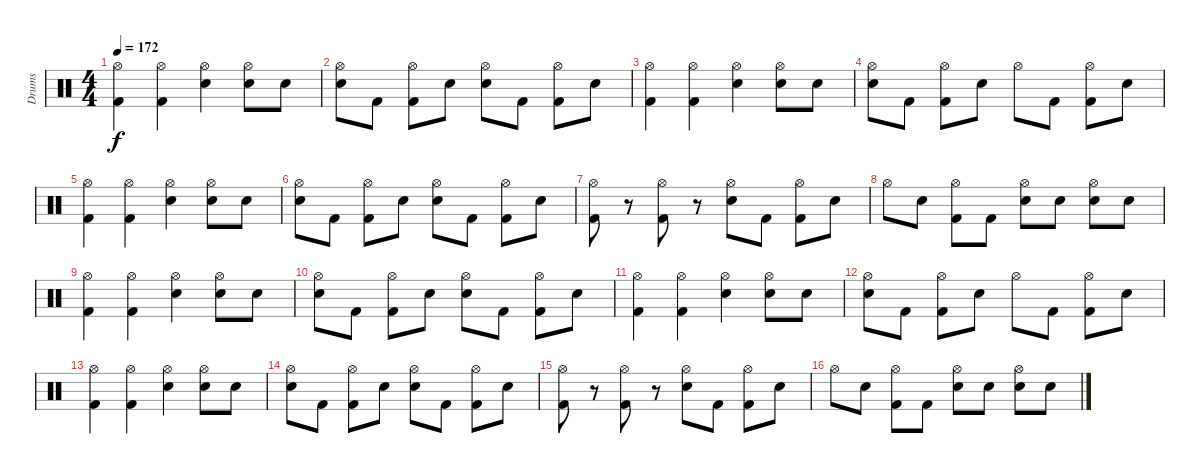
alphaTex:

\track ("Drums" "Drums") {instrument percussion}
\staff {score}
\articulation defaults
\ts (4 4)
\tempo 172
\clef neutral
\ks c
("Hi-Hat (open)" "Kick (hit) 2").4{dy f} ("Hi-Hat (open)" "Kick (hit) 2").4 ("Hi-Hat (open)" "Snare (hit) 2").4 ("Hi-Hat (open)" "Snare (hit) 2").8 "Snare (hit) 2".8 |
("Hi-Hat (open)" "Snare (hit) 2").8 "Kick (hit) 2".8 ("Hi-Hat (open)" "Kick (hit) 2").8 "Snare (hit) 2".8 ("Hi-Hat (open)" "Snare (hit) 2").8 "Kick (hit) 2".8 ("Hi-Hat (open)" "Kick (hit) 2").8 "Snare (hit) 2".8 |
("Hi-Hat (open)" "Kick (hit) 2").4 ("Hi-Hat (open)" "Kick (hit) 2").4 ("Hi-Hat (open)" "Snare (hit) 2").4 ("Hi-Hat (open)" "Snare (hit) 2").8 "Snare (hit) 2".8 |
("Hi-Hat (open)" "Snare (hit) 2").8 "Kick (hit) 2".8 ("Hi-Hat (open)" "Kick (hit) 2").8 "Snare (hit) 2".8 "Hi-Hat (open)".8 "Kick (hit) 2".8 ("Hi-Hat (open)" "Kick (hit) 2").8 "Snare (hit) 2".8 |
("Hi-Hat (open)" "Kick (hit) 2").4 ("Hi-Hat (open)" "Kick (hit) 2").4 ("Hi-Hat (open)" "Snare (hit) 2").4 ("Hi-Hat (open)" "Snare (hit) 2").8 "Snare (hit) 2".8 |
("Hi-Hat (open)" "Snare (hit) 2").8 "Kick (hit) 2".8 ("Hi-Hat (open)" "Kick (hit) 2").8 "Snare (hit) 2".8 ("Hi-Hat (open)" "Snare (hit) 2").8 "Kick (hit) 2".8 ("Hi-Hat (open)" "Kick (hit) 2").8 "Snare (hit) 2".8 |
("Hi-Hat (open)" "Kick (hit) 2").8 r.8 ("Hi-Hat (open)" "Kick (hit) 2").8 r.8 ("Hi-Hat (open)" "Snare (hit) 2").8 "Kick (hit) 2".8 ("Hi-Hat (open)" "Kick (hit) 2").8 "Snare (hit) 2".8 |
"Hi-Hat (open)".8 "Snare (hit) 2".8 ("Hi-Hat (open)" "Kick (hit) 2").8 "Kick (hit) 2".8 ("Hi-Hat (open)" "Snare (hit) 2").8 "Snare (hit) 2".8 ("Hi-Hat (open)" "Snare (hit) 2").8 "Snare (hit) 2".8 |
("Hi-Hat (open)" "Kick (hit) 2").4 ("Hi-Hat (open)" "Kick (hit) 2").4 ("Hi-Hat (open)" "Snare (hit) 2").4 ("Hi-Hat (open)" "Snare (hit) 2").8 "Snare (hit) 2".8 |
("Hi-Hat (open)" "Snare (hit) 2").8 "Kick (hit) 2".8 ("Hi-Hat (open)" "Kick (hit) 2").8 "Snare (hit) 2".8 ("Hi-Hat (open)" "Snare (hit) 2").8 "Kick (hit) 2".8 ("Hi-Hat (open)" "Kick (hit) 2").8 "Snare (hit) 2".8 |
("Hi-Hat (open)" "Kick (hit) 2").4 ("Hi-Hat (open)" "Kick (hit) 2").4 ("Hi-Hat (open)" "Snare (hit) 2").4 ("Hi-Hat (open)" "Snare (hit) 2").8 "Snare (hit) 2".8 |
("Hi-Hat (open)" "Snare (hit) 2").8 "Kick (hit) 2".8 ("Hi-Hat (open)" "Kick (hit) 2").8 "Snare (hit) 2".8 "Hi-Hat (open)".8 "Kick (hit) 2".8 ("Hi-Hat (open)" "Kick (hit) 2").8 "Snare (hit) 2".8 |
("Hi-Hat (open)" "Kick (hit) 2").4 ("Hi-Hat (open)" "Kick (hit) 2").4 ("Hi-Hat (open)" "Snare (hit) 2").4 ("Hi-Hat (open)" "Snare (hit) 2").8 "Snare (hit) 2".8 |
("Hi-Hat (open)" "Snare (hit) 2").8 "Kick (hit) 2".8 ("Hi-Hat (open)" "Kick (hit) 2").8 "Snare (hit) 2".8 ("Hi-Hat (open)" "Snare (hit) 2").8 "Kick (hit) 2".8 ("Hi-Hat (open)" "Kick (hit) 2").8 "Snare (hit) 2".8 |
("Hi-Hat (open)" "Kick (hit) 2").8 r.8 ("Hi-Hat (open)" "Kick (hit) 2").8 r.8 ("Hi-Hat (open)" "Snare (hit) 2").8 "Kick (hit) 2".8 ("Hi-Hat (open)" "Kick (hit) 2").8 "Snare (hit) 2".8 |
"Hi-Hat (open)".8 "Snare (hit) 2".8 ("Hi-Hat (open)" "Kick (hit) 2").8 "Kick (hit) 2".8 ("Hi-Hat (open)" "Snare (hit) 2").8 "Snare (hit) 2".8 ("Hi-Hat (open)" "Snare (hit) 2").8 "Snare (hit) 2".8
